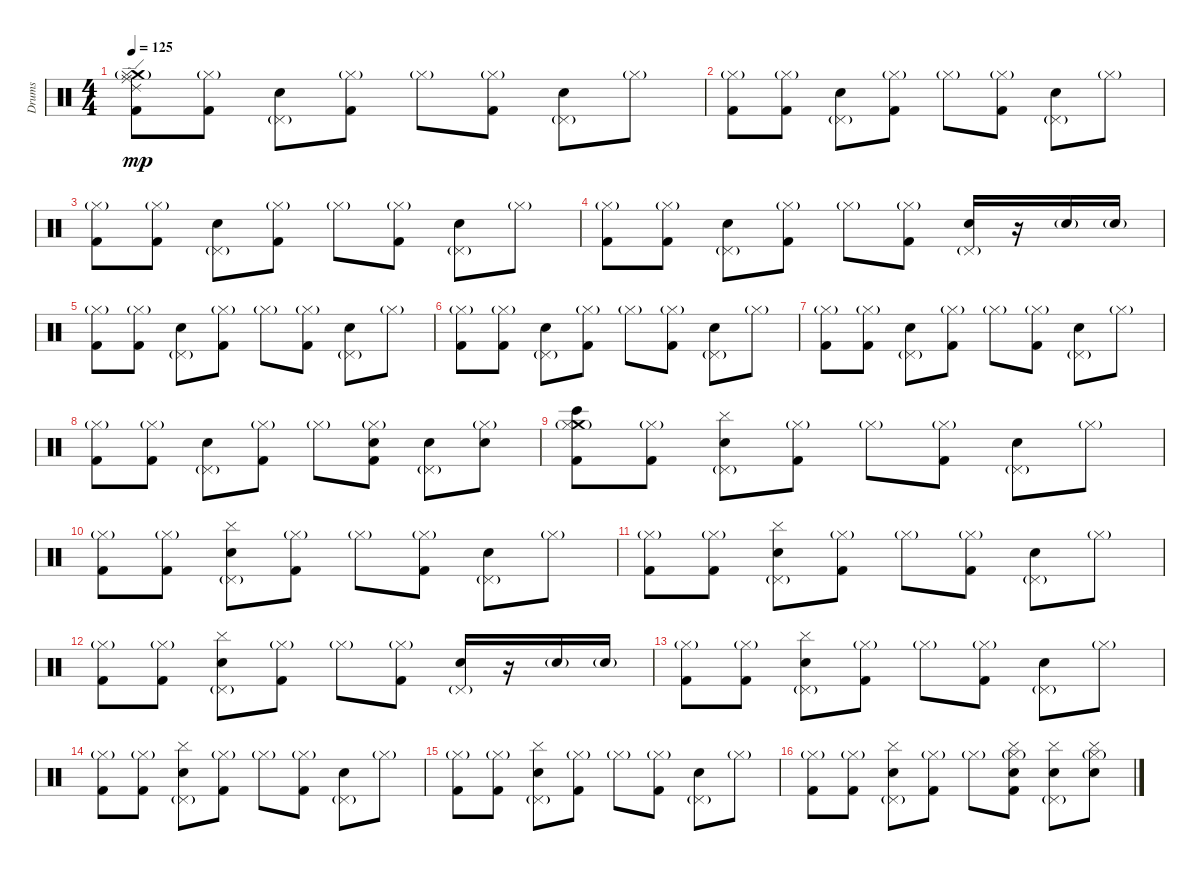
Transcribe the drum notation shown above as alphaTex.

\track ("Drums" "Drums") {instrument percussion}
\staff {score}
\articulation defaults
\ts (4 4)
\tempo 125
\clef neutral
\ks c
("Crash medium (hit)" "Ride (middle)" "Hi-Hat (closed)"{g} "Ride (edge) 2" "Kick (hit) 2").8{dy mp} ("Hi-Hat (closed)"{g} "Kick (hit) 2").8 ("Electric Snare (hit)" "Pedal Hi-Hat (hit)"{g}).8 ("Hi-Hat (closed)"{g} "Kick (hit) 2").8 "Hi-Hat (closed)"{g}.8 ("Hi-Hat (closed)"{g} "Kick (hit) 2").8 ("Electric Snare (hit)" "Pedal Hi-Hat (hit)"{g}).8 "Hi-Hat (closed)"{g}.8 |
("Hi-Hat (closed)"{g} "Kick (hit) 2").8 ("Hi-Hat (closed)"{g} "Kick (hit) 2").8 ("Electric Snare (hit)" "Pedal Hi-Hat (hit)"{g}).8 ("Hi-Hat (closed)"{g} "Kick (hit) 2").8 "Hi-Hat (closed)"{g}.8 ("Hi-Hat (closed)"{g} "Kick (hit) 2").8 ("Electric Snare (hit)" "Pedal Hi-Hat (hit)"{g}).8 "Hi-Hat (closed)"{g}.8 |
("Hi-Hat (closed)"{g} "Kick (hit) 2").8 ("Hi-Hat (closed)"{g} "Kick (hit) 2").8 ("Electric Snare (hit)" "Pedal Hi-Hat (hit)"{g}).8 ("Hi-Hat (closed)"{g} "Kick (hit) 2").8 "Hi-Hat (closed)"{g}.8 ("Hi-Hat (closed)"{g} "Kick (hit) 2").8 ("Electric Snare (hit)" "Pedal Hi-Hat (hit)"{g}).8 "Hi-Hat (closed)"{g}.8 |
("Hi-Hat (closed)"{g} "Kick (hit) 2").8 ("Hi-Hat (closed)"{g} "Kick (hit) 2").8 ("Electric Snare (hit)" "Pedal Hi-Hat (hit)"{g}).8 ("Hi-Hat (closed)"{g} "Kick (hit) 2").8 "Hi-Hat (closed)"{g}.8 ("Hi-Hat (closed)"{g} "Kick (hit) 2").8 ("Electric Snare (hit)" "Pedal Hi-Hat (hit)"{g}).16 r.16 "Electric Snare (hit)"{g}.16 "Electric Snare (hit)"{g}.16 |
("Hi-Hat (closed)"{g} "Kick (hit) 2").8 ("Hi-Hat (closed)"{g} "Kick (hit) 2").8 ("Electric Snare (hit)" "Pedal Hi-Hat (hit)"{g}).8 ("Hi-Hat (closed)"{g} "Kick (hit) 2").8 "Hi-Hat (closed)"{g}.8 ("Hi-Hat (closed)"{g} "Kick (hit) 2").8 ("Electric Snare (hit)" "Pedal Hi-Hat (hit)"{g}).8 "Hi-Hat (closed)"{g}.8 |
("Hi-Hat (closed)"{g} "Kick (hit) 2").8 ("Hi-Hat (closed)"{g} "Kick (hit) 2").8 ("Electric Snare (hit)" "Pedal Hi-Hat (hit)"{g}).8 ("Hi-Hat (closed)"{g} "Kick (hit) 2").8 "Hi-Hat (closed)"{g}.8 ("Hi-Hat (closed)"{g} "Kick (hit) 2").8 ("Electric Snare (hit)" "Pedal Hi-Hat (hit)"{g}).8 "Hi-Hat (closed)"{g}.8 |
("Hi-Hat (closed)"{g} "Kick (hit) 2").8 ("Hi-Hat (closed)"{g} "Kick (hit) 2").8 ("Electric Snare (hit)" "Pedal Hi-Hat (hit)"{g}).8 ("Hi-Hat (closed)"{g} "Kick (hit) 2").8 "Hi-Hat (closed)"{g}.8 ("Hi-Hat (closed)"{g} "Kick (hit) 2").8 ("Electric Snare (hit)" "Pedal Hi-Hat (hit)"{g}).8 "Hi-Hat (closed)"{g}.8 |
("Hi-Hat (closed)"{g} "Kick (hit) 2").8 ("Hi-Hat (closed)"{g} "Kick (hit) 2").8 ("Electric Snare (hit)" "Pedal Hi-Hat (hit)"{g}).8 ("Hi-Hat (closed)"{g} "Kick (hit) 2").8 "Hi-Hat (closed)"{g}.8 ("Electric Snare (hit)" "Hi-Hat (closed)"{g} "Kick (hit) 2").8 ("Electric Snare (hit)" "Pedal Hi-Hat (hit)"{g}).8 ("Electric Snare (hit)" "Hi-Hat (closed)"{g}).8 |
("Crash medium (hit)" "Hi-Hat (closed)"{g} "Bongo High (hit)" "Kick (hit) 2").8 ("Hi-Hat (closed)"{g} "Kick (hit) 2").8 ("Electric Snare (hit)" "Pedal Hi-Hat (hit)"{g} "Cymbal (hit)").8 ("Hi-Hat (closed)"{g} "Kick (hit) 2").8 "Hi-Hat (closed)"{g}.8 ("Hi-Hat (closed)"{g} "Kick (hit) 2").8 ("Electric Snare (hit)" "Pedal Hi-Hat (hit)"{g}).8 "Hi-Hat (closed)"{g}.8 |
("Hi-Hat (closed)"{g} "Kick (hit) 2").8 ("Hi-Hat (closed)"{g} "Kick (hit) 2").8 ("Electric Snare (hit)" "Pedal Hi-Hat (hit)"{g} "Cymbal (hit)").8 ("Hi-Hat (closed)"{g} "Kick (hit) 2").8 "Hi-Hat (closed)"{g}.8 ("Hi-Hat (closed)"{g} "Kick (hit) 2").8 ("Electric Snare (hit)" "Pedal Hi-Hat (hit)"{g}).8 "Hi-Hat (closed)"{g}.8 |
("Hi-Hat (closed)"{g} "Kick (hit) 2").8 ("Hi-Hat (closed)"{g} "Kick (hit) 2").8 ("Electric Snare (hit)" "Pedal Hi-Hat (hit)"{g} "Cymbal (hit)").8 ("Hi-Hat (closed)"{g} "Kick (hit) 2").8 "Hi-Hat (closed)"{g}.8 ("Hi-Hat (closed)"{g} "Kick (hit) 2").8 ("Electric Snare (hit)" "Pedal Hi-Hat (hit)"{g}).8 "Hi-Hat (closed)"{g}.8 |
("Hi-Hat (closed)"{g} "Kick (hit) 2").8 ("Hi-Hat (closed)"{g} "Kick (hit) 2").8 ("Electric Snare (hit)" "Pedal Hi-Hat (hit)"{g} "Cymbal (hit)").8 ("Hi-Hat (closed)"{g} "Kick (hit) 2").8 "Hi-Hat (closed)"{g}.8 ("Hi-Hat (closed)"{g} "Kick (hit) 2").8 ("Electric Snare (hit)" "Pedal Hi-Hat (hit)"{g}).16 r.16 "Electric Snare (hit)"{g}.16 "Electric Snare (hit)"{g}.16 |
("Hi-Hat (closed)"{g} "Kick (hit) 2").8 ("Hi-Hat (closed)"{g} "Kick (hit) 2").8 ("Electric Snare (hit)" "Pedal Hi-Hat (hit)"{g} "Cymbal (hit)").8 ("Hi-Hat (closed)"{g} "Kick (hit) 2").8 "Hi-Hat (closed)"{g}.8 ("Hi-Hat (closed)"{g} "Kick (hit) 2").8 ("Electric Snare (hit)" "Pedal Hi-Hat (hit)"{g}).8 "Hi-Hat (closed)"{g}.8 |
("Hi-Hat (closed)"{g} "Kick (hit) 2").8 ("Hi-Hat (closed)"{g} "Kick (hit) 2").8 ("Electric Snare (hit)" "Pedal Hi-Hat (hit)"{g} "Cymbal (hit)").8 ("Hi-Hat (closed)"{g} "Kick (hit) 2").8 "Hi-Hat (closed)"{g}.8 ("Hi-Hat (closed)"{g} "Kick (hit) 2").8 ("Electric Snare (hit)" "Pedal Hi-Hat (hit)"{g}).8 "Hi-Hat (closed)"{g}.8 |
("Hi-Hat (closed)"{g} "Kick (hit) 2").8 ("Hi-Hat (closed)"{g} "Kick (hit) 2").8 ("Electric Snare (hit)" "Pedal Hi-Hat (hit)"{g} "Cymbal (hit)").8 ("Hi-Hat (closed)"{g} "Kick (hit) 2").8 "Hi-Hat (closed)"{g}.8 ("Hi-Hat (closed)"{g} "Kick (hit) 2").8 ("Electric Snare (hit)" "Pedal Hi-Hat (hit)"{g}).8 "Hi-Hat (closed)"{g}.8 |
("Hi-Hat (closed)"{g} "Kick (hit) 2").8 ("Hi-Hat (closed)"{g} "Kick (hit) 2").8 ("Electric Snare (hit)" "Pedal Hi-Hat (hit)"{g} "Cymbal (hit)").8 ("Hi-Hat (closed)"{g} "Kick (hit) 2").8 "Hi-Hat (closed)"{g}.8 ("Electric Snare (hit)" "Hi-Hat (closed)"{g} "Cymbal (hit)" "Kick (hit) 2").8 ("Electric Snare (hit)" "Pedal Hi-Hat (hit)"{g} "Cymbal (hit)").8 ("Electric Snare (hit)" "Hi-Hat (closed)"{g} "Cymbal (hit)").8
